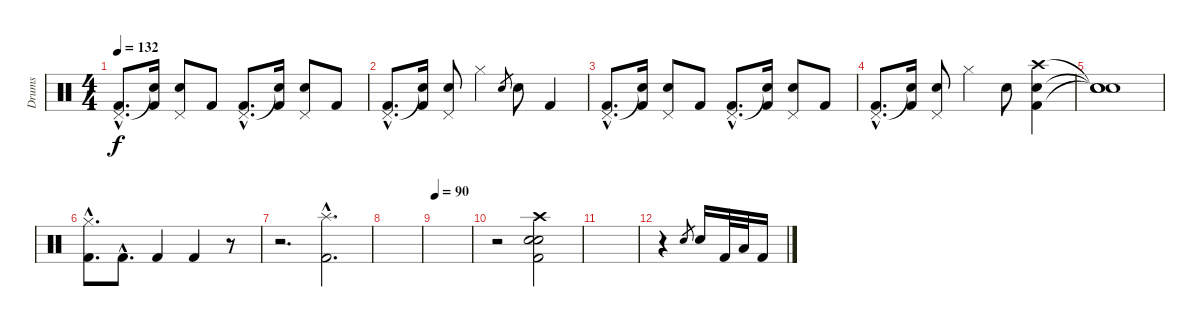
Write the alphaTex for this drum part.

\track ("Drums" "Drums") {instrument percussion}
\staff {score}
\articulation defaults
\ts (4 4)
\tempo 132
\clef neutral
\ks aminor
("Kick (hit) 2"{hac} "Pedal Hi-Hat (hit)"{hac}).8{d dy f} ("Kick (hit) 2" "Snare (hit)"{t}).16 ("Electric Snare (hit)" "Pedal Hi-Hat (hit)").8 "Kick (hit) 2".8 ("Kick (hit) 2"{hac} "Pedal Hi-Hat (hit)"{hac}).8{d} ("Kick (hit) 2" "Snare (hit)"{t}).16 ("Electric Snare (hit)" "Pedal Hi-Hat (hit)").8 "Kick (hit) 2".8 |
("Kick (hit) 2"{hac} "Pedal Hi-Hat (hit)"{hac}).8{d} ("Kick (hit) 2" "Snare (hit)"{t}).16 ("Electric Snare (hit)" "Pedal Hi-Hat (hit)").8 "Hi-Hat (closed)".4 "Electric Snare (hit)".8{gr} "Electric Snare (hit)".8 "Kick (hit) 2".4 |
("Kick (hit) 2"{hac} "Pedal Hi-Hat (hit)"{hac}).8{d} ("Kick (hit) 2" "Snare (hit)"{t}).16 ("Electric Snare (hit)" "Pedal Hi-Hat (hit)").8 "Kick (hit) 2".8 ("Kick (hit) 2"{hac} "Pedal Hi-Hat (hit)"{hac}).8{d} ("Kick (hit) 2" "Snare (hit)"{t}).16 ("Electric Snare (hit)" "Pedal Hi-Hat (hit)").8 "Kick (hit) 2".8 |
("Kick (hit) 2"{hac} "Pedal Hi-Hat (hit)"{hac}).8{d} ("Kick (hit) 2" "Snare (hit)"{t}).16 ("Electric Snare (hit)" "Pedal Hi-Hat (hit)").8 "Hi-Hat (closed)".4 "Electric Snare (hit)".8 ("Kick (hit) 2" "Electric Snare (hit)" "Crash high (hit)").4 |
("Snare (hit)"{t} "Snare (hit)"{t} "Snare (hit)"{t}).1 |
("Kick (hit) 2"{hac} "Hi-Hat (closed)"{hac}).8{d} "Kick (hit) 2"{hac}.8{d} "Kick (hit) 2".4 "Kick (hit) 2".4 r.8 |
r.2{d} ("Kick (hit) 2"{hac} "Splash (hit)"{hac}).2{d} |
|
\tempo 90
|
r.2 ("Kick (hit) 2" "Electric Snare (hit)" "Electric Snare (hit)" "Crash high (hit)").2 |
|
r.4 "Electric Snare (hit)".8{gr} "Electric Snare (hit)".16 "Kick (hit) 2".32 "Low Floor Tom (hit)".32 "Kick (hit) 2".16
